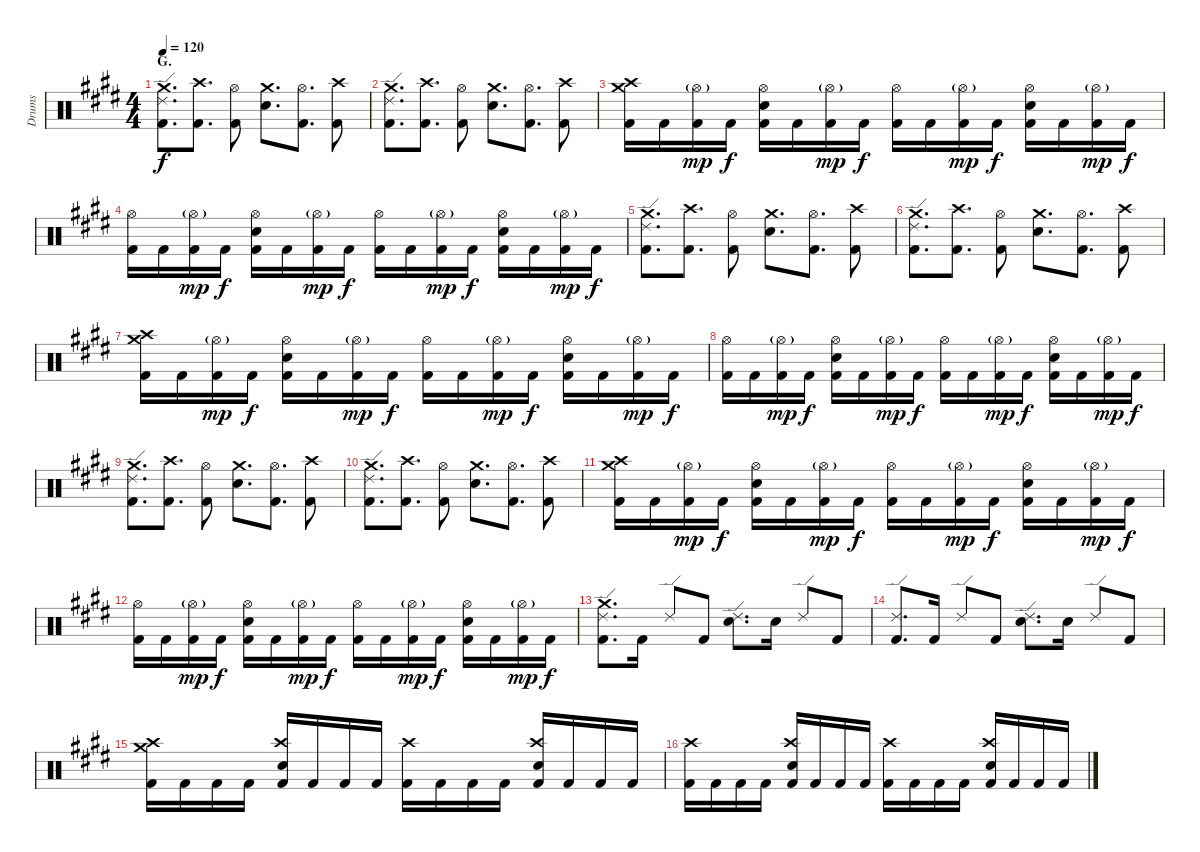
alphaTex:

\track ("Drums" "Drums") {instrument percussion}
\staff {score}
\articulation defaults
\ts (4 4)
\section ("" "G.")
\tempo 120
\clef neutral
\ks e
("Crash medium (hit)" "Ride (edge) 2" "Kick (hit) 2").8{d dy f} ("Crash high (hit)" "Kick (hit) 2").8{d} ("Hi-Hat (open)" "Kick (hit) 2").8 ("Crash medium (hit)" "Electric Snare (hit)").8{d} ("Hi-Hat (open)" "Kick (hit) 2").8{d} ("Crash high (hit)" "Kick (hit) 2").8 |
("Crash medium (hit)" "Ride (edge) 2" "Kick (hit) 2").8{d} ("Crash high (hit)" "Kick (hit) 2").8{d} ("Hi-Hat (open)" "Kick (hit) 2").8 ("Crash medium (hit)" "Electric Snare (hit)").8{d} ("Hi-Hat (open)" "Kick (hit) 2").8{d} ("Crash high (hit)" "Kick (hit) 2").8 |
("Crash medium (hit)" "Crash high (hit)" "Kick (hit) 2").16 "Kick (hit) 2".16 ("Hi-Hat (open)"{g} "Kick (hit) 2").16{dy mp} "Kick (hit) 2".16{dy f} ("Hi-Hat (open)" "Electric Snare (hit)" "Kick (hit) 2").16 "Kick (hit) 2".16 ("Hi-Hat (open)"{g} "Kick (hit) 2").16{dy mp} "Kick (hit) 2".16{dy f} ("Hi-Hat (open)" "Kick (hit) 2").16 "Kick (hit) 2".16 ("Hi-Hat (open)"{g} "Kick (hit) 2").16{dy mp} "Kick (hit) 2".16{dy f} ("Hi-Hat (open)" "Electric Snare (hit)" "Kick (hit) 2").16 "Kick (hit) 2".16 ("Hi-Hat (open)"{g} "Kick (hit) 2").16{dy mp} "Kick (hit) 2".16{dy f} |
("Hi-Hat (open)" "Kick (hit) 2").16 "Kick (hit) 2".16 ("Hi-Hat (open)"{g} "Kick (hit) 2").16{dy mp} "Kick (hit) 2".16{dy f} ("Hi-Hat (open)" "Electric Snare (hit)" "Kick (hit) 2").16 "Kick (hit) 2".16 ("Hi-Hat (open)"{g} "Kick (hit) 2").16{dy mp} "Kick (hit) 2".16{dy f} ("Hi-Hat (open)" "Kick (hit) 2").16 "Kick (hit) 2".16 ("Hi-Hat (open)"{g} "Kick (hit) 2").16{dy mp} "Kick (hit) 2".16{dy f} ("Hi-Hat (open)" "Electric Snare (hit)" "Kick (hit) 2").16 "Kick (hit) 2".16 ("Hi-Hat (open)"{g} "Kick (hit) 2").16{dy mp} "Kick (hit) 2".16{dy f} |
("Crash medium (hit)" "Ride (edge) 2" "Kick (hit) 2").8{d} ("Crash high (hit)" "Kick (hit) 2").8{d} ("Hi-Hat (open)" "Kick (hit) 2").8 ("Crash medium (hit)" "Electric Snare (hit)").8{d} ("Hi-Hat (open)" "Kick (hit) 2").8{d} ("Crash high (hit)" "Kick (hit) 2").8 |
("Crash medium (hit)" "Ride (edge) 2" "Kick (hit) 2").8{d} ("Crash high (hit)" "Kick (hit) 2").8{d} ("Hi-Hat (open)" "Kick (hit) 2").8 ("Crash medium (hit)" "Electric Snare (hit)").8{d} ("Hi-Hat (open)" "Kick (hit) 2").8{d} ("Crash high (hit)" "Kick (hit) 2").8 |
("Crash medium (hit)" "Crash high (hit)" "Kick (hit) 2").16 "Kick (hit) 2".16 ("Hi-Hat (open)"{g} "Kick (hit) 2").16{dy mp} "Kick (hit) 2".16{dy f} ("Hi-Hat (open)" "Electric Snare (hit)" "Kick (hit) 2").16 "Kick (hit) 2".16 ("Hi-Hat (open)"{g} "Kick (hit) 2").16{dy mp} "Kick (hit) 2".16{dy f} ("Hi-Hat (open)" "Kick (hit) 2").16 "Kick (hit) 2".16 ("Hi-Hat (open)"{g} "Kick (hit) 2").16{dy mp} "Kick (hit) 2".16{dy f} ("Hi-Hat (open)" "Electric Snare (hit)" "Kick (hit) 2").16 "Kick (hit) 2".16 ("Hi-Hat (open)"{g} "Kick (hit) 2").16{dy mp} "Kick (hit) 2".16{dy f} |
("Hi-Hat (open)" "Kick (hit) 2").16 "Kick (hit) 2".16 ("Hi-Hat (open)"{g} "Kick (hit) 2").16{dy mp} "Kick (hit) 2".16{dy f} ("Hi-Hat (open)" "Electric Snare (hit)" "Kick (hit) 2").16 "Kick (hit) 2".16 ("Hi-Hat (open)"{g} "Kick (hit) 2").16{dy mp} "Kick (hit) 2".16{dy f} ("Hi-Hat (open)" "Kick (hit) 2").16 "Kick (hit) 2".16 ("Hi-Hat (open)"{g} "Kick (hit) 2").16{dy mp} "Kick (hit) 2".16{dy f} ("Hi-Hat (open)" "Electric Snare (hit)" "Kick (hit) 2").16 "Kick (hit) 2".16 ("Hi-Hat (open)"{g} "Kick (hit) 2").16{dy mp} "Kick (hit) 2".16{dy f} |
("Crash medium (hit)" "Ride (edge) 2" "Kick (hit) 2").8{d} ("Crash high (hit)" "Kick (hit) 2").8{d} ("Hi-Hat (open)" "Kick (hit) 2").8 ("Crash medium (hit)" "Electric Snare (hit)").8{d} ("Hi-Hat (open)" "Kick (hit) 2").8{d} ("Crash high (hit)" "Kick (hit) 2").8 |
("Crash medium (hit)" "Ride (edge) 2" "Kick (hit) 2").8{d} ("Crash high (hit)" "Kick (hit) 2").8{d} ("Hi-Hat (open)" "Kick (hit) 2").8 ("Crash medium (hit)" "Electric Snare (hit)").8{d} ("Hi-Hat (open)" "Kick (hit) 2").8{d} ("Crash high (hit)" "Kick (hit) 2").8 |
("Crash medium (hit)" "Crash high (hit)" "Kick (hit) 2").16 "Kick (hit) 2".16 ("Hi-Hat (open)"{g} "Kick (hit) 2").16{dy mp} "Kick (hit) 2".16{dy f} ("Hi-Hat (open)" "Electric Snare (hit)" "Kick (hit) 2").16 "Kick (hit) 2".16 ("Hi-Hat (open)"{g} "Kick (hit) 2").16{dy mp} "Kick (hit) 2".16{dy f} ("Hi-Hat (open)" "Kick (hit) 2").16 "Kick (hit) 2".16 ("Hi-Hat (open)"{g} "Kick (hit) 2").16{dy mp} "Kick (hit) 2".16{dy f} ("Hi-Hat (open)" "Electric Snare (hit)" "Kick (hit) 2").16 "Kick (hit) 2".16 ("Hi-Hat (open)"{g} "Kick (hit) 2").16{dy mp} "Kick (hit) 2".16{dy f} |
("Hi-Hat (open)" "Kick (hit) 2").16 "Kick (hit) 2".16 ("Hi-Hat (open)"{g} "Kick (hit) 2").16{dy mp} "Kick (hit) 2".16{dy f} ("Hi-Hat (open)" "Electric Snare (hit)" "Kick (hit) 2").16 "Kick (hit) 2".16 ("Hi-Hat (open)"{g} "Kick (hit) 2").16{dy mp} "Kick (hit) 2".16{dy f} ("Hi-Hat (open)" "Kick (hit) 2").16 "Kick (hit) 2".16 ("Hi-Hat (open)"{g} "Kick (hit) 2").16{dy mp} "Kick (hit) 2".16{dy f} ("Hi-Hat (open)" "Electric Snare (hit)" "Kick (hit) 2").16 "Kick (hit) 2".16 ("Hi-Hat (open)"{g} "Kick (hit) 2").16{dy mp} "Kick (hit) 2".16{dy f} |
("Crash medium (hit)" "Ride (edge) 2" "Kick (hit) 2").8{d} "Kick (hit) 2".16 "Ride (edge) 2".8 "Kick (hit) 2".8 ("Ride (edge) 2" "Electric Snare (hit)").8{d} "Electric Snare (hit)".16 "Ride (edge) 2".8 "Kick (hit) 2".8 |
("Ride (edge) 2" "Kick (hit) 2").8{d} "Kick (hit) 2".16 "Ride (edge) 2".8 "Kick (hit) 2".8 ("Ride (edge) 2" "Electric Snare (hit)").8{d} "Electric Snare (hit)".16 "Ride (edge) 2".8 "Kick (hit) 2".8 |
("Crash medium (hit)" "Crash high (hit)" "Kick (hit) 2").16 "Kick (hit) 2".16 "Kick (hit) 2".16 "Kick (hit) 2".16 ("Crash high (hit)" "Electric Snare (hit)" "Kick (hit) 2").16 "Kick (hit) 2".16 "Kick (hit) 2".16 "Kick (hit) 2".16 ("Crash high (hit)" "Kick (hit) 2").16 "Kick (hit) 2".16 "Kick (hit) 2".16 "Kick (hit) 2".16 ("Crash high (hit)" "Electric Snare (hit)" "Kick (hit) 2").16 "Kick (hit) 2".16 "Kick (hit) 2".16 "Kick (hit) 2".16 |
("Crash high (hit)" "Kick (hit) 2").16 "Kick (hit) 2".16 "Kick (hit) 2".16 "Kick (hit) 2".16 ("Crash high (hit)" "Electric Snare (hit)" "Kick (hit) 2").16 "Kick (hit) 2".16 "Kick (hit) 2".16 "Kick (hit) 2".16 ("Crash high (hit)" "Kick (hit) 2").16 "Kick (hit) 2".16 "Kick (hit) 2".16 "Kick (hit) 2".16 ("Crash high (hit)" "Electric Snare (hit)" "Kick (hit) 2").16 "Kick (hit) 2".16 "Kick (hit) 2".16 "Kick (hit) 2".16
